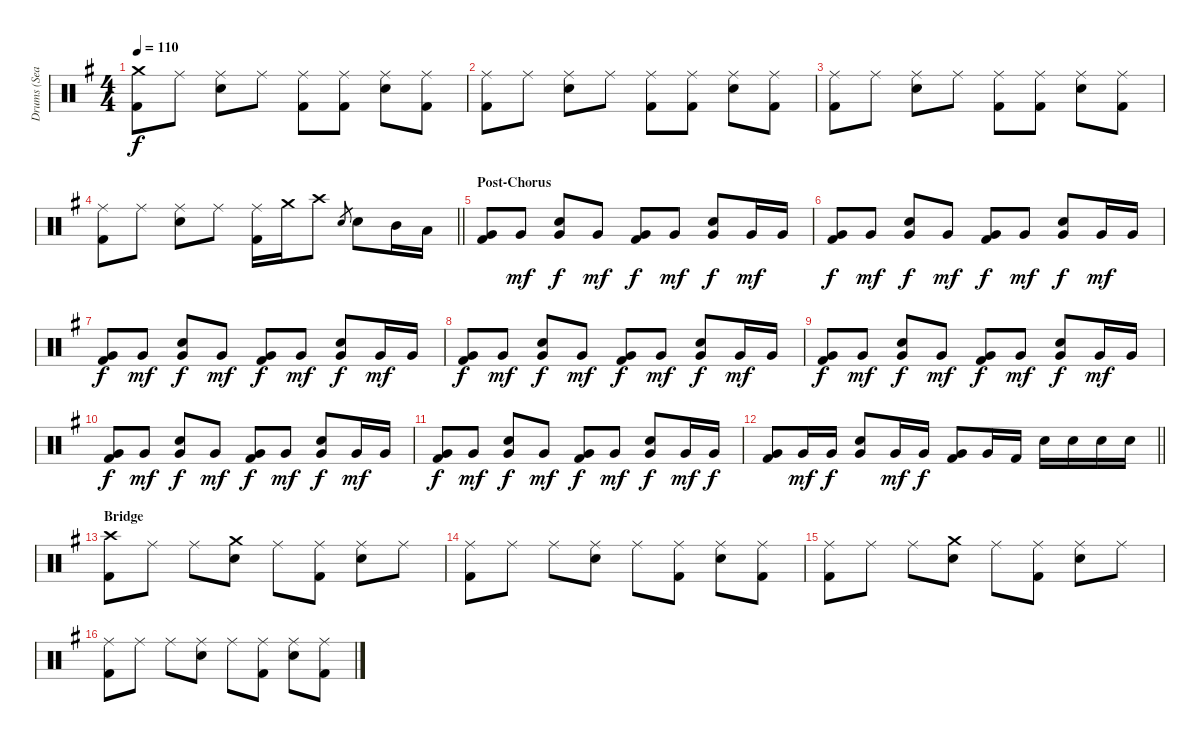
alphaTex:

\track ("Drums (Sean)" "Drums (Sea") {instrument percussion}
\staff {score}
\articulation defaults
\ts (4 4)
\tempo 110
\clef neutral
\ks g
("Crash medium (hit)" "Kick (hit) 2").8{dy f} "Ride (middle)".8 ("Ride (middle)" "Snare (hit) 2").8 "Ride (middle)".8 ("Ride (middle)" "Kick (hit) 2").8 ("Ride (middle)" "Kick (hit) 2").8 ("Ride (middle)" "Snare (hit) 2").8 ("Ride (middle)" "Kick (hit) 2").8 |
("Ride (middle)" "Kick (hit) 2").8 "Ride (middle)".8 ("Ride (middle)" "Snare (hit) 2").8 "Ride (middle)".8 ("Ride (middle)" "Kick (hit) 2").8 ("Ride (middle)" "Kick (hit) 2").8 ("Ride (middle)" "Snare (hit) 2").8 ("Ride (middle)" "Kick (hit) 2").8 |
("Ride (middle)" "Kick (hit) 2").8 "Ride (middle)".8 ("Ride (middle)" "Snare (hit) 2").8 "Ride (middle)".8 ("Ride (middle)" "Kick (hit) 2").8 ("Ride (middle)" "Kick (hit) 2").8 ("Ride (middle)" "Snare (hit) 2").8 ("Ride (middle)" "Kick (hit) 2").8 |
\barLineRight lightlight
("Ride (middle)" "Kick (hit) 2").8 "Ride (middle)".8 ("Ride (middle)" "Snare (hit) 2").8 "Ride (middle)".8 ("Ride (middle)" "Kick (hit) 2").16 "Crash medium (hit)".16 "Crash high (hit)".8 "Snare (hit) 2".8{gr} "Snare (hit) 2".8 "Mid Tom (hit)".16 "Low Tom (hit)".16 |
\section ("" "Post-Chorus")
("Very Low Tom (hit)" "Kick (hit) 2").8 "Very Low Tom (hit)".8{dy mf} ("Very Low Tom (hit)" "Snare (hit) 2").8{dy f} "Very Low Tom (hit)".8{dy mf} ("Very Low Tom (hit)" "Kick (hit) 2").8{dy f} "Very Low Tom (hit)".8{dy mf} ("Very Low Tom (hit)" "Snare (hit) 2").8{dy f} "Very Low Tom (hit)".16{dy mf} "Very Low Tom (hit)".16 |
("Very Low Tom (hit)" "Kick (hit) 2").8{dy f} "Very Low Tom (hit)".8{dy mf} ("Very Low Tom (hit)" "Snare (hit) 2").8{dy f} "Very Low Tom (hit)".8{dy mf} ("Very Low Tom (hit)" "Kick (hit) 2").8{dy f} "Very Low Tom (hit)".8{dy mf} ("Very Low Tom (hit)" "Snare (hit) 2").8{dy f} "Very Low Tom (hit)".16{dy mf} "Very Low Tom (hit)".16 |
("Very Low Tom (hit)" "Kick (hit) 2").8{dy f} "Very Low Tom (hit)".8{dy mf} ("Very Low Tom (hit)" "Snare (hit) 2").8{dy f} "Very Low Tom (hit)".8{dy mf} ("Very Low Tom (hit)" "Kick (hit) 2").8{dy f} "Very Low Tom (hit)".8{dy mf} ("Very Low Tom (hit)" "Snare (hit) 2").8{dy f} "Very Low Tom (hit)".16{dy mf} "Very Low Tom (hit)".16 |
("Very Low Tom (hit)" "Kick (hit) 2").8{dy f} "Very Low Tom (hit)".8{dy mf} ("Very Low Tom (hit)" "Snare (hit) 2").8{dy f} "Very Low Tom (hit)".8{dy mf} ("Very Low Tom (hit)" "Kick (hit) 2").8{dy f} "Very Low Tom (hit)".8{dy mf} ("Very Low Tom (hit)" "Snare (hit) 2").8{dy f} "Very Low Tom (hit)".16{dy mf} "Very Low Tom (hit)".16 |
("Very Low Tom (hit)" "Kick (hit) 2").8{dy f} "Very Low Tom (hit)".8{dy mf} ("Very Low Tom (hit)" "Snare (hit) 2").8{dy f} "Very Low Tom (hit)".8{dy mf} ("Very Low Tom (hit)" "Kick (hit) 2").8{dy f} "Very Low Tom (hit)".8{dy mf} ("Very Low Tom (hit)" "Snare (hit) 2").8{dy f} "Very Low Tom (hit)".16{dy mf} "Very Low Tom (hit)".16 |
("Very Low Tom (hit)" "Kick (hit) 2").8{dy f} "Very Low Tom (hit)".8{dy mf} ("Very Low Tom (hit)" "Snare (hit) 2").8{dy f} "Very Low Tom (hit)".8{dy mf} ("Very Low Tom (hit)" "Kick (hit) 2").8{dy f} "Very Low Tom (hit)".8{dy mf} ("Very Low Tom (hit)" "Snare (hit) 2").8{dy f} "Very Low Tom (hit)".16{dy mf} "Very Low Tom (hit)".16 |
("Very Low Tom (hit)" "Kick (hit) 2").8{dy f} "Very Low Tom (hit)".8{dy mf} ("Very Low Tom (hit)" "Snare (hit) 2").8{dy f} "Very Low Tom (hit)".8{dy mf} ("Very Low Tom (hit)" "Kick (hit) 2").8{dy f} "Very Low Tom (hit)".8{dy mf} ("Very Low Tom (hit)" "Snare (hit) 2").8{dy f} "Very Low Tom (hit)".16{dy mf} "Very Low Tom (hit)".16{dy f} |
\barLineRight lightlight
("Very Low Tom (hit)" "Kick (hit) 2").8 "Very Low Tom (hit)".16{dy mf} "Very Low Tom (hit)".16{dy f} ("Very Low Tom (hit)" "Snare (hit) 2").8 "Very Low Tom (hit)".16{dy mf} "Very Low Tom (hit)".16{dy f} ("Very Low Tom (hit)" "Kick (hit) 2").8 "Very Low Tom (hit)".16 "Kick (hit) 2".16 "Snare (hit) 2".16 "Snare (hit) 2".16 "Snare (hit) 2".16 "Snare (hit) 2".16 |
\section ("" "Bridge")
("Crash high (hit)" "Kick (hit) 2").8 "Ride (middle)".8 "Ride (middle)".8 ("Crash medium (hit)" "Snare (hit) 2").8 "Ride (middle)".8 ("Ride (middle)" "Kick (hit) 2").8 ("Ride (middle)" "Snare (hit) 2").8 "Ride (middle)".8 |
("Ride (middle)" "Kick (hit) 2").8 "Ride (middle)".8 "Ride (middle)".8 ("Ride (middle)" "Snare (hit) 2").8 "Ride (middle)".8 ("Ride (middle)" "Kick (hit) 2").8 ("Ride (middle)" "Snare (hit) 2").8 ("Ride (middle)" "Kick (hit) 2").8 |
("Ride (middle)" "Kick (hit) 2").8 "Ride (middle)".8 "Ride (middle)".8 ("Crash medium (hit)" "Snare (hit) 2").8 "Ride (middle)".8 ("Ride (middle)" "Kick (hit) 2").8 ("Ride (middle)" "Snare (hit) 2").8 "Ride (middle)".8 |
("Ride (middle)" "Kick (hit) 2").8 "Ride (middle)".8 "Ride (middle)".8 ("Ride (middle)" "Snare (hit) 2").8 "Ride (middle)".8 ("Ride (middle)" "Kick (hit) 2").8 ("Ride (middle)" "Snare (hit) 2").8 ("Ride (middle)" "Kick (hit) 2").8
